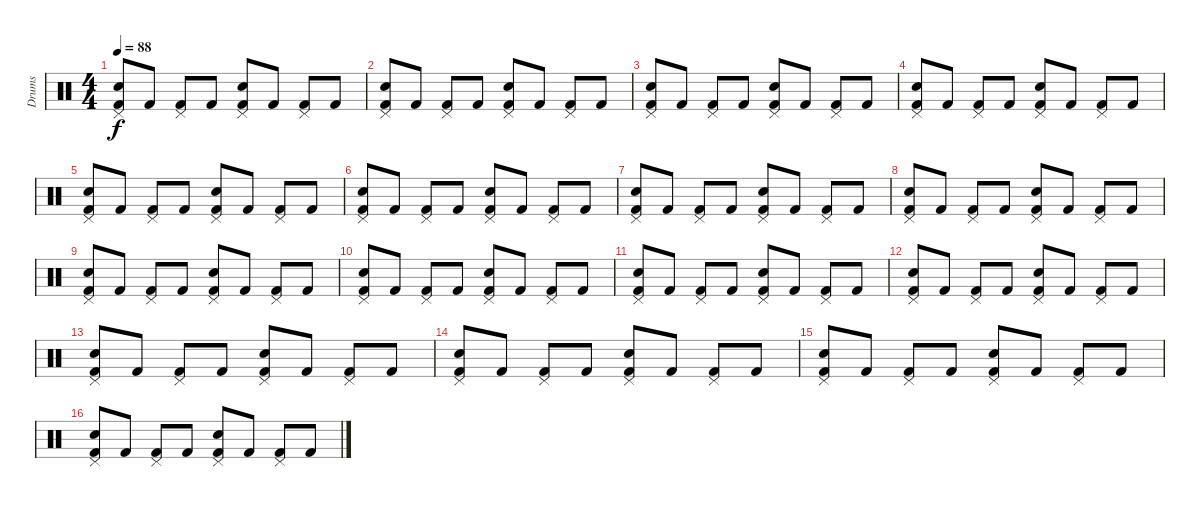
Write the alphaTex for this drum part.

\track ("Drums" "Drums") {instrument percussion}
\staff {score}
\articulation defaults
\ts (4 4)
\tempo 88
\clef neutral
\ks c
("Pedal Hi-Hat (hit)" "Kick (hit) 2" "Electric Snare (hit)").8{dy f} "Kick (hit) 2".8 ("Pedal Hi-Hat (hit)" "Kick (hit) 2").8 "Kick (hit) 2".8 ("Pedal Hi-Hat (hit)" "Kick (hit) 2" "Electric Snare (hit)").8 "Kick (hit) 2".8 ("Pedal Hi-Hat (hit)" "Kick (hit) 2").8 "Kick (hit) 2".8 |
("Pedal Hi-Hat (hit)" "Kick (hit) 2" "Electric Snare (hit)").8 "Kick (hit) 2".8 ("Pedal Hi-Hat (hit)" "Kick (hit) 2").8 "Kick (hit) 2".8 ("Pedal Hi-Hat (hit)" "Kick (hit) 2" "Electric Snare (hit)").8 "Kick (hit) 2".8 ("Pedal Hi-Hat (hit)" "Kick (hit) 2").8 "Kick (hit) 2".8 |
("Pedal Hi-Hat (hit)" "Kick (hit) 2" "Electric Snare (hit)").8 "Kick (hit) 2".8 ("Pedal Hi-Hat (hit)" "Kick (hit) 2").8 "Kick (hit) 2".8 ("Pedal Hi-Hat (hit)" "Kick (hit) 2" "Electric Snare (hit)").8 "Kick (hit) 2".8 ("Pedal Hi-Hat (hit)" "Kick (hit) 2").8 "Kick (hit) 2".8 |
("Pedal Hi-Hat (hit)" "Kick (hit) 2" "Electric Snare (hit)").8 "Kick (hit) 2".8 ("Pedal Hi-Hat (hit)" "Kick (hit) 2").8 "Kick (hit) 2".8 ("Pedal Hi-Hat (hit)" "Kick (hit) 2" "Electric Snare (hit)").8 "Kick (hit) 2".8 ("Pedal Hi-Hat (hit)" "Kick (hit) 2").8 "Kick (hit) 2".8 |
("Pedal Hi-Hat (hit)" "Kick (hit) 2" "Electric Snare (hit)").8 "Kick (hit) 2".8 ("Pedal Hi-Hat (hit)" "Kick (hit) 2").8 "Kick (hit) 2".8 ("Pedal Hi-Hat (hit)" "Kick (hit) 2" "Electric Snare (hit)").8 "Kick (hit) 2".8 ("Pedal Hi-Hat (hit)" "Kick (hit) 2").8 "Kick (hit) 2".8 |
("Pedal Hi-Hat (hit)" "Kick (hit) 2" "Electric Snare (hit)").8 "Kick (hit) 2".8 ("Pedal Hi-Hat (hit)" "Kick (hit) 2").8 "Kick (hit) 2".8 ("Pedal Hi-Hat (hit)" "Kick (hit) 2" "Electric Snare (hit)").8 "Kick (hit) 2".8 ("Pedal Hi-Hat (hit)" "Kick (hit) 2").8 "Kick (hit) 2".8 |
("Pedal Hi-Hat (hit)" "Kick (hit) 2" "Electric Snare (hit)").8 "Kick (hit) 2".8 ("Pedal Hi-Hat (hit)" "Kick (hit) 2").8 "Kick (hit) 2".8 ("Pedal Hi-Hat (hit)" "Kick (hit) 2" "Electric Snare (hit)").8 "Kick (hit) 2".8 ("Pedal Hi-Hat (hit)" "Kick (hit) 2").8 "Kick (hit) 2".8 |
("Pedal Hi-Hat (hit)" "Kick (hit) 2" "Electric Snare (hit)").8 "Kick (hit) 2".8 ("Pedal Hi-Hat (hit)" "Kick (hit) 2").8 "Kick (hit) 2".8 ("Pedal Hi-Hat (hit)" "Kick (hit) 2" "Electric Snare (hit)").8 "Kick (hit) 2".8 ("Pedal Hi-Hat (hit)" "Kick (hit) 2").8 "Kick (hit) 2".8 |
("Pedal Hi-Hat (hit)" "Kick (hit) 2" "Electric Snare (hit)").8 "Kick (hit) 2".8 ("Pedal Hi-Hat (hit)" "Kick (hit) 2").8 "Kick (hit) 2".8 ("Pedal Hi-Hat (hit)" "Kick (hit) 2" "Electric Snare (hit)").8 "Kick (hit) 2".8 ("Pedal Hi-Hat (hit)" "Kick (hit) 2").8 "Kick (hit) 2".8 |
("Pedal Hi-Hat (hit)" "Kick (hit) 2" "Electric Snare (hit)").8 "Kick (hit) 2".8 ("Pedal Hi-Hat (hit)" "Kick (hit) 2").8 "Kick (hit) 2".8 ("Pedal Hi-Hat (hit)" "Kick (hit) 2" "Electric Snare (hit)").8 "Kick (hit) 2".8 ("Pedal Hi-Hat (hit)" "Kick (hit) 2").8 "Kick (hit) 2".8 |
("Pedal Hi-Hat (hit)" "Kick (hit) 2" "Electric Snare (hit)").8 "Kick (hit) 2".8 ("Pedal Hi-Hat (hit)" "Kick (hit) 2").8 "Kick (hit) 2".8 ("Pedal Hi-Hat (hit)" "Kick (hit) 2" "Electric Snare (hit)").8 "Kick (hit) 2".8 ("Pedal Hi-Hat (hit)" "Kick (hit) 2").8 "Kick (hit) 2".8 |
("Pedal Hi-Hat (hit)" "Kick (hit) 2" "Electric Snare (hit)").8 "Kick (hit) 2".8 ("Pedal Hi-Hat (hit)" "Kick (hit) 2").8 "Kick (hit) 2".8 ("Pedal Hi-Hat (hit)" "Kick (hit) 2" "Electric Snare (hit)").8 "Kick (hit) 2".8 ("Pedal Hi-Hat (hit)" "Kick (hit) 2").8 "Kick (hit) 2".8 |
("Pedal Hi-Hat (hit)" "Kick (hit) 2" "Electric Snare (hit)").8 "Kick (hit) 2".8 ("Pedal Hi-Hat (hit)" "Kick (hit) 2").8 "Kick (hit) 2".8 ("Pedal Hi-Hat (hit)" "Kick (hit) 2" "Electric Snare (hit)").8 "Kick (hit) 2".8 ("Pedal Hi-Hat (hit)" "Kick (hit) 2").8 "Kick (hit) 2".8 |
("Pedal Hi-Hat (hit)" "Kick (hit) 2" "Electric Snare (hit)").8 "Kick (hit) 2".8 ("Pedal Hi-Hat (hit)" "Kick (hit) 2").8 "Kick (hit) 2".8 ("Pedal Hi-Hat (hit)" "Kick (hit) 2" "Electric Snare (hit)").8 "Kick (hit) 2".8 ("Pedal Hi-Hat (hit)" "Kick (hit) 2").8 "Kick (hit) 2".8 |
("Pedal Hi-Hat (hit)" "Kick (hit) 2" "Electric Snare (hit)").8 "Kick (hit) 2".8 ("Pedal Hi-Hat (hit)" "Kick (hit) 2").8 "Kick (hit) 2".8 ("Pedal Hi-Hat (hit)" "Kick (hit) 2" "Electric Snare (hit)").8 "Kick (hit) 2".8 ("Pedal Hi-Hat (hit)" "Kick (hit) 2").8 "Kick (hit) 2".8 |
("Pedal Hi-Hat (hit)" "Kick (hit) 2" "Electric Snare (hit)").8 "Kick (hit) 2".8 ("Pedal Hi-Hat (hit)" "Kick (hit) 2").8 "Kick (hit) 2".8 ("Pedal Hi-Hat (hit)" "Kick (hit) 2" "Electric Snare (hit)").8 "Kick (hit) 2".8 ("Pedal Hi-Hat (hit)" "Kick (hit) 2").8 "Kick (hit) 2".8
